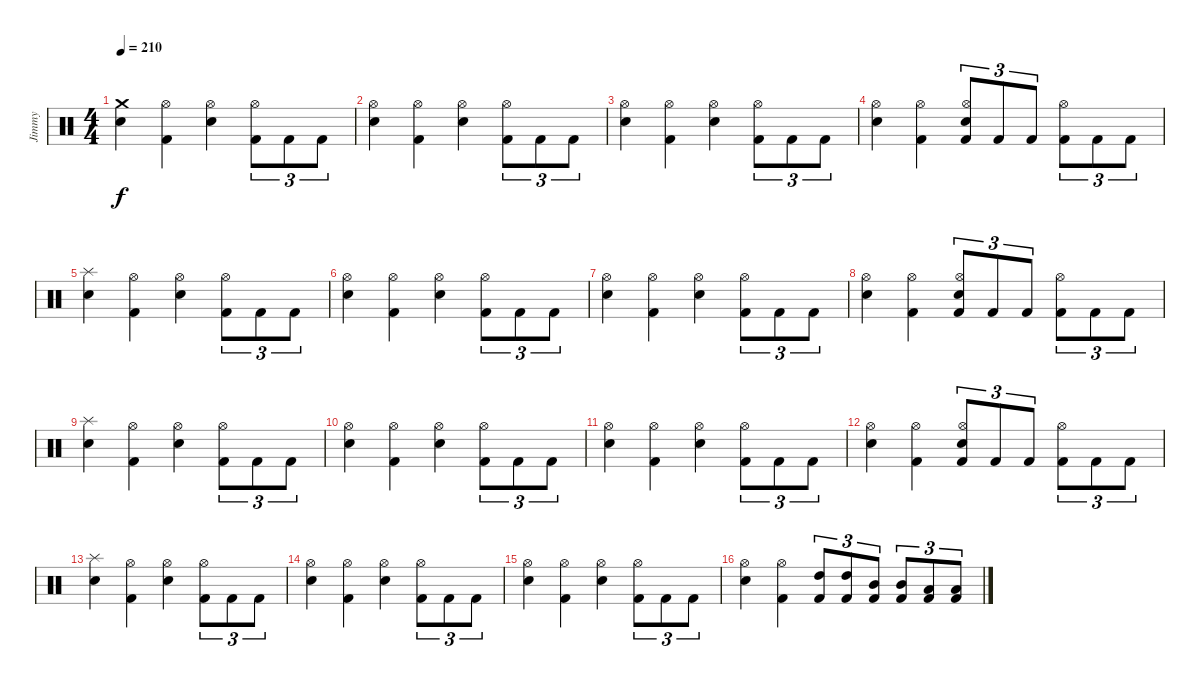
\track ("Jimmy" "Jimmy") {instrument percussion}
\staff {score}
\articulation defaults
\ts (4 4)
\tempo 210
\clef neutral
\ks c
("Crash medium (hit)" "Electric Snare (hit)").4{dy f} ("Hi-Hat (open)" "Kick (hit) 2").4 ("Hi-Hat (open)" "Electric Snare (hit)").4 ("Hi-Hat (open)" "Kick (hit) 2").8{tu (3 2)} "Kick (hit) 2".8{tu (3 2)} "Kick (hit) 2".8{tu (3 2)} |
("Hi-Hat (open)" "Electric Snare (hit)").4 ("Hi-Hat (open)" "Kick (hit) 2").4 ("Hi-Hat (open)" "Electric Snare (hit)").4 ("Hi-Hat (open)" "Kick (hit) 2").8{tu (3 2)} "Kick (hit) 2".8{tu (3 2)} "Kick (hit) 2".8{tu (3 2)} |
("Hi-Hat (open)" "Electric Snare (hit)").4 ("Hi-Hat (open)" "Kick (hit) 2").4 ("Hi-Hat (open)" "Electric Snare (hit)").4 ("Hi-Hat (open)" "Kick (hit) 2").8{tu (3 2)} "Kick (hit) 2".8{tu (3 2)} "Kick (hit) 2".8{tu (3 2)} |
("Hi-Hat (open)" "Electric Snare (hit)").4 ("Hi-Hat (open)" "Kick (hit) 2").4 ("Hi-Hat (open)" "Electric Snare (hit)" "Kick (hit) 2").8{tu (3 2)} "Kick (hit) 2".8{tu (3 2)} "Kick (hit) 2".8{tu (3 2)} ("Hi-Hat (open)" "Kick (hit) 2").8{tu (3 2)} "Kick (hit) 2".8{tu (3 2)} "Kick (hit) 2".8{tu (3 2)} |
("Splash (hit)" "Electric Snare (hit)").4 ("Hi-Hat (open)" "Kick (hit) 2").4 ("Hi-Hat (open)" "Electric Snare (hit)").4 ("Hi-Hat (open)" "Kick (hit) 2").8{tu (3 2)} "Kick (hit) 2".8{tu (3 2)} "Kick (hit) 2".8{tu (3 2)} |
("Hi-Hat (open)" "Electric Snare (hit)").4 ("Hi-Hat (open)" "Kick (hit) 2").4 ("Hi-Hat (open)" "Electric Snare (hit)").4 ("Hi-Hat (open)" "Kick (hit) 2").8{tu (3 2)} "Kick (hit) 2".8{tu (3 2)} "Kick (hit) 2".8{tu (3 2)} |
("Hi-Hat (open)" "Electric Snare (hit)").4 ("Hi-Hat (open)" "Kick (hit) 2").4 ("Hi-Hat (open)" "Electric Snare (hit)").4 ("Hi-Hat (open)" "Kick (hit) 2").8{tu (3 2)} "Kick (hit) 2".8{tu (3 2)} "Kick (hit) 2".8{tu (3 2)} |
("Hi-Hat (open)" "Electric Snare (hit)").4 ("Hi-Hat (open)" "Kick (hit) 2").4 ("Hi-Hat (open)" "Electric Snare (hit)" "Kick (hit) 2").8{tu (3 2)} "Kick (hit) 2".8{tu (3 2)} "Kick (hit) 2".8{tu (3 2)} ("Hi-Hat (open)" "Kick (hit) 2").8{tu (3 2)} "Kick (hit) 2".8{tu (3 2)} "Kick (hit) 2".8{tu (3 2)} |
("Splash (hit)" "Electric Snare (hit)").4 ("Hi-Hat (open)" "Kick (hit) 2").4 ("Hi-Hat (open)" "Electric Snare (hit)").4 ("Hi-Hat (open)" "Kick (hit) 2").8{tu (3 2)} "Kick (hit) 2".8{tu (3 2)} "Kick (hit) 2".8{tu (3 2)} |
("Hi-Hat (open)" "Electric Snare (hit)").4 ("Hi-Hat (open)" "Kick (hit) 2").4 ("Hi-Hat (open)" "Electric Snare (hit)").4 ("Hi-Hat (open)" "Kick (hit) 2").8{tu (3 2)} "Kick (hit) 2".8{tu (3 2)} "Kick (hit) 2".8{tu (3 2)} |
("Hi-Hat (open)" "Electric Snare (hit)").4 ("Hi-Hat (open)" "Kick (hit) 2").4 ("Hi-Hat (open)" "Electric Snare (hit)").4 ("Hi-Hat (open)" "Kick (hit) 2").8{tu (3 2)} "Kick (hit) 2".8{tu (3 2)} "Kick (hit) 2".8{tu (3 2)} |
("Hi-Hat (open)" "Electric Snare (hit)").4 ("Hi-Hat (open)" "Kick (hit) 2").4 ("Hi-Hat (open)" "Electric Snare (hit)" "Kick (hit) 2").8{tu (3 2)} "Kick (hit) 2".8{tu (3 2)} "Kick (hit) 2".8{tu (3 2)} ("Hi-Hat (open)" "Kick (hit) 2").8{tu (3 2)} "Kick (hit) 2".8{tu (3 2)} "Kick (hit) 2".8{tu (3 2)} |
("Splash (hit)" "Electric Snare (hit)").4 ("Hi-Hat (open)" "Kick (hit) 2").4 ("Hi-Hat (open)" "Electric Snare (hit)").4 ("Hi-Hat (open)" "Kick (hit) 2").8{tu (3 2)} "Kick (hit) 2".8{tu (3 2)} "Kick (hit) 2".8{tu (3 2)} |
("Hi-Hat (open)" "Electric Snare (hit)").4 ("Hi-Hat (open)" "Kick (hit) 2").4 ("Hi-Hat (open)" "Electric Snare (hit)").4 ("Hi-Hat (open)" "Kick (hit) 2").8{tu (3 2)} "Kick (hit) 2".8{tu (3 2)} "Kick (hit) 2".8{tu (3 2)} |
("Hi-Hat (open)" "Electric Snare (hit)").4 ("Hi-Hat (open)" "Kick (hit) 2").4 ("Hi-Hat (open)" "Electric Snare (hit)").4 ("Hi-Hat (open)" "Kick (hit) 2").8{tu (3 2)} "Kick (hit) 2".8{tu (3 2)} "Kick (hit) 2".8{tu (3 2)} |
("Hi-Hat (open)" "Electric Snare (hit)").4 ("Hi-Hat (open)" "Kick (hit) 2").4 ("High Tom (hit)" "Kick (hit) 2").8{tu (3 2)} ("High Tom (hit)" "Kick (hit) 2").8{tu (3 2)} ("Mid Tom (hit)" "Kick (hit) 2").8{tu (3 2)} ("Mid Tom (hit)" "Kick (hit) 2").8{tu (3 2)} ("Low Tom (hit)" "Kick (hit) 2").8{tu (3 2)} ("Low Tom (hit)" "Kick (hit) 2").8{tu (3 2)}
